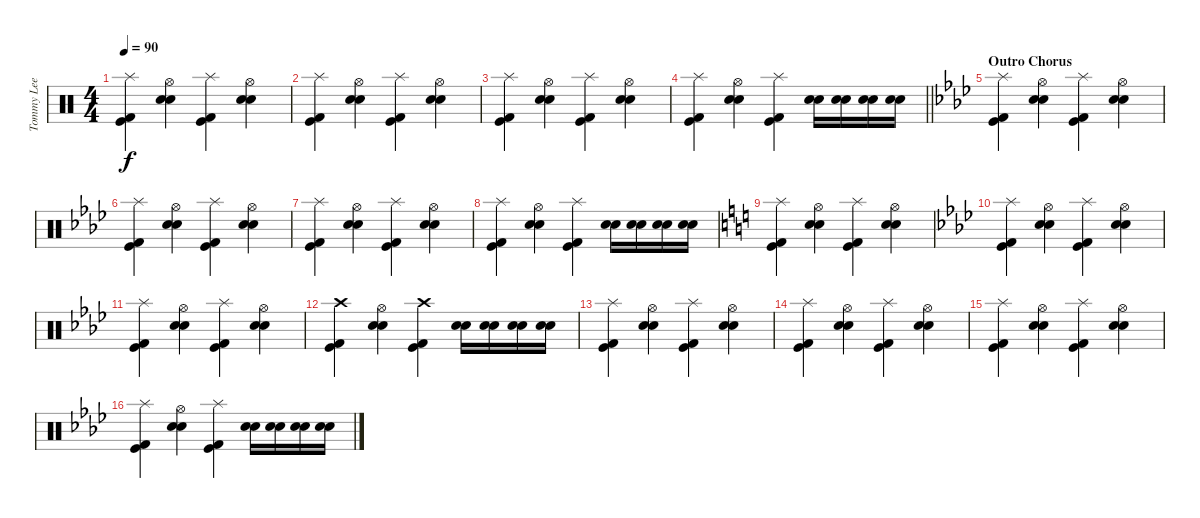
\track ("Tommy Lee" "Tommy Lee") {instrument percussion}
\staff {score}
\articulation defaults
\ts (4 4)
\tempo 90
\clef neutral
\ks c
("Splash (hit)" "Kick (hit) 2" "Kick (hit)").4{dy f} ("Hi-Hat (open)" "Electric Snare (hit)" "Snare (hit) 2").4 ("Splash (hit)" "Kick (hit) 2" "Kick (hit)").4 ("Hi-Hat (open)" "Electric Snare (hit)" "Snare (hit) 2").4 |
("Splash (hit)" "Kick (hit) 2" "Kick (hit)").4 ("Hi-Hat (open)" "Electric Snare (hit)" "Snare (hit) 2").4 ("Splash (hit)" "Kick (hit) 2" "Kick (hit)").4 ("Hi-Hat (open)" "Electric Snare (hit)" "Snare (hit) 2").4 |
("Splash (hit)" "Kick (hit) 2" "Kick (hit)").4 ("Hi-Hat (open)" "Electric Snare (hit)" "Snare (hit) 2").4 ("Splash (hit)" "Kick (hit) 2" "Kick (hit)").4 ("Hi-Hat (open)" "Electric Snare (hit)" "Snare (hit) 2").4 |
\barLineRight lightlight
("Splash (hit)" "Kick (hit) 2" "Kick (hit)").4 ("Hi-Hat (open)" "Electric Snare (hit)" "Snare (hit) 2").4 ("Splash (hit)" "Kick (hit) 2" "Kick (hit)").4 ("Electric Snare (hit)" "Snare (hit) 2").16 ("Electric Snare (hit)" "Snare (hit) 2").16 ("Electric Snare (hit)" "Snare (hit) 2").16 ("Electric Snare (hit)" "Snare (hit) 2").16 |
\section ("" "Outro Chorus")
\ks ab
("Splash (hit)" "Kick (hit) 2" "Kick (hit)").4 ("Hi-Hat (open)" "Electric Snare (hit)" "Snare (hit) 2").4 ("Splash (hit)" "Kick (hit) 2" "Kick (hit)").4 ("Hi-Hat (open)" "Electric Snare (hit)" "Snare (hit) 2").4 |
("Splash (hit)" "Kick (hit) 2" "Kick (hit)").4 ("Hi-Hat (open)" "Electric Snare (hit)" "Snare (hit) 2").4 ("Splash (hit)" "Kick (hit) 2" "Kick (hit)").4 ("Hi-Hat (open)" "Electric Snare (hit)" "Snare (hit) 2").4 |
("Splash (hit)" "Kick (hit) 2" "Kick (hit)").4 ("Hi-Hat (open)" "Electric Snare (hit)" "Snare (hit) 2").4 ("Splash (hit)" "Kick (hit) 2" "Kick (hit)").4 ("Hi-Hat (open)" "Electric Snare (hit)" "Snare (hit) 2").4 |
("Splash (hit)" "Kick (hit) 2" "Kick (hit)").4 ("Hi-Hat (open)" "Electric Snare (hit)" "Snare (hit) 2").4 ("Splash (hit)" "Kick (hit) 2" "Kick (hit)").4 ("Electric Snare (hit)" "Snare (hit) 2").16 ("Electric Snare (hit)" "Snare (hit) 2").16 ("Electric Snare (hit)" "Snare (hit) 2").16 ("Electric Snare (hit)" "Snare (hit) 2").16 |
\ks c
("Splash (hit)" "Kick (hit) 2" "Kick (hit)").4 ("Hi-Hat (open)" "Electric Snare (hit)" "Snare (hit) 2").4 ("Splash (hit)" "Kick (hit) 2" "Kick (hit)").4 ("Hi-Hat (open)" "Electric Snare (hit)" "Snare (hit) 2").4 |
\ks ab
("Splash (hit)" "Kick (hit) 2" "Kick (hit)").4 ("Hi-Hat (open)" "Electric Snare (hit)" "Snare (hit) 2").4 ("Splash (hit)" "Kick (hit) 2" "Kick (hit)").4 ("Hi-Hat (open)" "Electric Snare (hit)" "Snare (hit) 2").4 |
("Splash (hit)" "Kick (hit) 2" "Kick (hit)").4 ("Hi-Hat (open)" "Electric Snare (hit)" "Snare (hit) 2").4 ("Splash (hit)" "Kick (hit) 2" "Kick (hit)").4 ("Hi-Hat (open)" "Electric Snare (hit)" "Snare (hit) 2").4 |
("Crash high (hit)" "Kick (hit) 2" "Kick (hit)").4 ("Hi-Hat (open)" "Electric Snare (hit)" "Snare (hit) 2").4 ("Crash high (hit)" "Kick (hit) 2" "Kick (hit)").4 ("Electric Snare (hit)" "Snare (hit) 2").16 ("Electric Snare (hit)" "Snare (hit) 2").16 ("Electric Snare (hit)" "Snare (hit) 2").16 ("Electric Snare (hit)" "Snare (hit) 2").16 |
("Splash (hit)" "Kick (hit) 2" "Kick (hit)").4 ("Hi-Hat (open)" "Electric Snare (hit)" "Snare (hit) 2").4 ("Splash (hit)" "Kick (hit) 2" "Kick (hit)").4 ("Hi-Hat (open)" "Electric Snare (hit)" "Snare (hit) 2").4 |
("Splash (hit)" "Kick (hit) 2" "Kick (hit)").4 ("Hi-Hat (open)" "Electric Snare (hit)" "Snare (hit) 2").4 ("Splash (hit)" "Kick (hit) 2" "Kick (hit)").4 ("Hi-Hat (open)" "Electric Snare (hit)" "Snare (hit) 2").4 |
("Splash (hit)" "Kick (hit) 2" "Kick (hit)").4 ("Hi-Hat (open)" "Electric Snare (hit)" "Snare (hit) 2").4 ("Splash (hit)" "Kick (hit) 2" "Kick (hit)").4 ("Hi-Hat (open)" "Electric Snare (hit)" "Snare (hit) 2").4 |
("Splash (hit)" "Kick (hit) 2" "Kick (hit)").4 ("Hi-Hat (open)" "Electric Snare (hit)" "Snare (hit) 2").4 ("Splash (hit)" "Kick (hit) 2" "Kick (hit)").4 ("Electric Snare (hit)" "Snare (hit) 2").16 ("Electric Snare (hit)" "Snare (hit) 2").16 ("Electric Snare (hit)" "Snare (hit) 2").16 ("Electric Snare (hit)" "Snare (hit) 2").16
